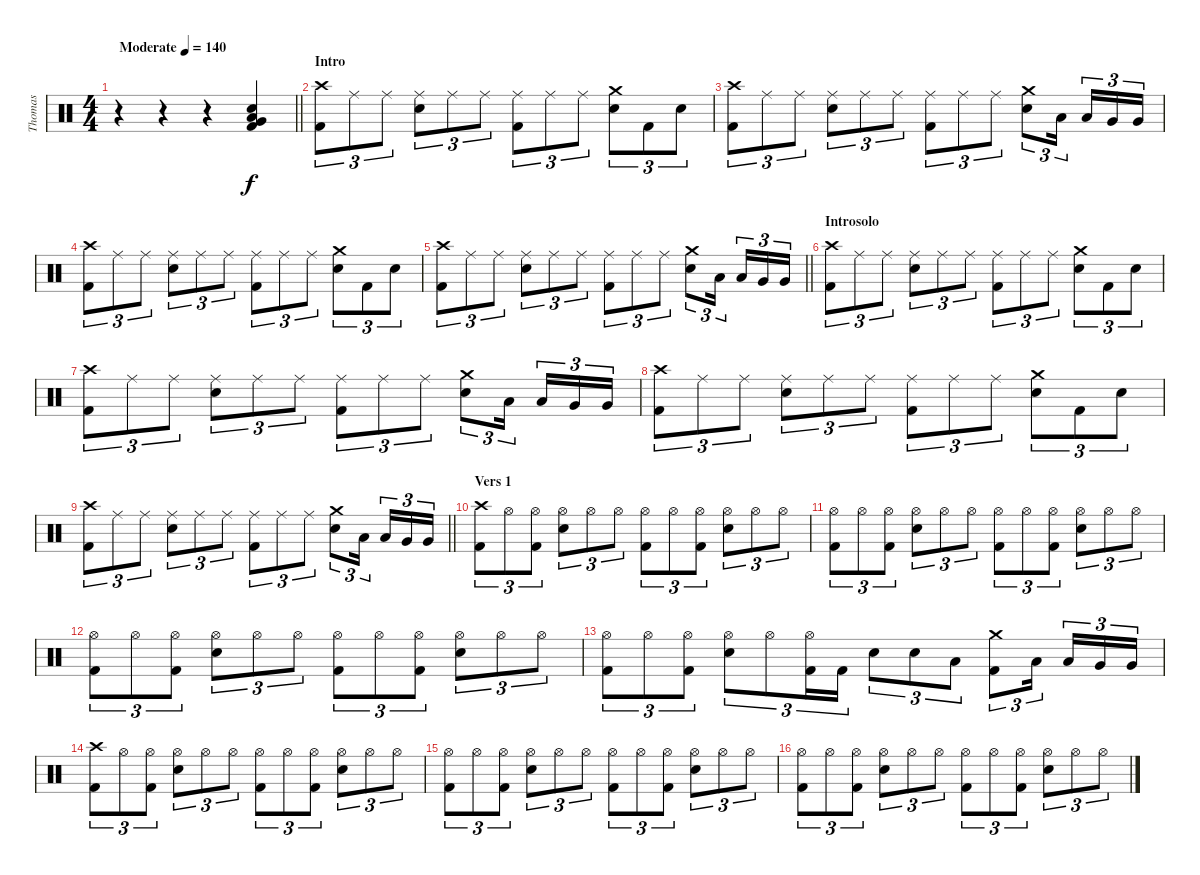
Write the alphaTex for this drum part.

\track ("Thomas" "Thomas") {instrument percussion}
\staff {score}
\articulation defaults
\ts (4 4)
\tempo (140 "Moderate")
\clef neutral
\barLineRight lightlight
\ks c
r.4{dy f} r.4 r.4 ("Very Low Tom (hit)" "Snare (hit) 2" "Low Floor Tom (hit)" "Kick (hit) 2").4 |
\section ("" "Intro")
("Crash high (hit)" "Kick (hit) 2").8{tu (3 2)} "Ride (middle)".8{tu (3 2)} "Ride (middle)".8{tu (3 2)} ("Ride (middle)" "Snare (hit) 2").8{tu (3 2)} "Ride (middle)".8{tu (3 2)} "Ride (middle)".8{tu (3 2)} ("Ride (middle)" "Kick (hit) 2").8{tu (3 2)} "Ride (middle)".8{tu (3 2)} "Ride (middle)".8{tu (3 2)} ("Crash medium (hit)" "Snare (hit) 2").8{tu (3 2)} "Kick (hit) 2".8{tu (3 2)} "Snare (hit) 2".8{tu (3 2)} |
("Crash high (hit)" "Kick (hit) 2").8{tu (3 2)} "Ride (middle)".8{tu (3 2)} "Ride (middle)".8{tu (3 2)} ("Ride (middle)" "Snare (hit) 2").8{tu (3 2)} "Ride (middle)".8{tu (3 2)} "Ride (middle)".8{tu (3 2)} ("Ride (middle)" "Kick (hit) 2").8{tu (3 2)} "Ride (middle)".8{tu (3 2)} "Ride (middle)".8{tu (3 2)} ("Crash medium (hit)" "Snare (hit) 2").8{tu (3 2)} "Low Tom (hit)".16{tu (3 2) beam splitsecondary} "Low Tom (hit)".16{tu (3 2)} "Very Low Tom (hit)".16{tu (3 2)} "Very Low Tom (hit)".16{tu (3 2)} |
("Crash high (hit)" "Kick (hit) 2").8{tu (3 2)} "Ride (middle)".8{tu (3 2)} "Ride (middle)".8{tu (3 2)} ("Ride (middle)" "Snare (hit) 2").8{tu (3 2)} "Ride (middle)".8{tu (3 2)} "Ride (middle)".8{tu (3 2)} ("Ride (middle)" "Kick (hit) 2").8{tu (3 2)} "Ride (middle)".8{tu (3 2)} "Ride (middle)".8{tu (3 2)} ("Crash medium (hit)" "Snare (hit) 2").8{tu (3 2)} "Kick (hit) 2".8{tu (3 2)} "Snare (hit) 2".8{tu (3 2)} |
\barLineRight lightlight
("Crash high (hit)" "Kick (hit) 2").8{tu (3 2)} "Ride (middle)".8{tu (3 2)} "Ride (middle)".8{tu (3 2)} ("Ride (middle)" "Snare (hit) 2").8{tu (3 2)} "Ride (middle)".8{tu (3 2)} "Ride (middle)".8{tu (3 2)} ("Ride (middle)" "Kick (hit) 2").8{tu (3 2)} "Ride (middle)".8{tu (3 2)} "Ride (middle)".8{tu (3 2)} ("Crash medium (hit)" "Snare (hit) 2").8{tu (3 2)} "Low Tom (hit)".16{tu (3 2) beam splitsecondary} "Low Tom (hit)".16{tu (3 2)} "Very Low Tom (hit)".16{tu (3 2)} "Very Low Tom (hit)".16{tu (3 2)} |
\section ("" "Introsolo")
("Crash high (hit)" "Kick (hit) 2").8{tu (3 2)} "Ride (middle)".8{tu (3 2)} "Ride (middle)".8{tu (3 2)} ("Ride (middle)" "Snare (hit) 2").8{tu (3 2)} "Ride (middle)".8{tu (3 2)} "Ride (middle)".8{tu (3 2)} ("Ride (middle)" "Kick (hit) 2").8{tu (3 2)} "Ride (middle)".8{tu (3 2)} "Ride (middle)".8{tu (3 2)} ("Crash medium (hit)" "Snare (hit) 2").8{tu (3 2)} "Kick (hit) 2".8{tu (3 2)} "Snare (hit) 2".8{tu (3 2)} |
("Crash high (hit)" "Kick (hit) 2").8{tu (3 2)} "Ride (middle)".8{tu (3 2)} "Ride (middle)".8{tu (3 2)} ("Ride (middle)" "Snare (hit) 2").8{tu (3 2)} "Ride (middle)".8{tu (3 2)} "Ride (middle)".8{tu (3 2)} ("Ride (middle)" "Kick (hit) 2").8{tu (3 2)} "Ride (middle)".8{tu (3 2)} "Ride (middle)".8{tu (3 2)} ("Crash medium (hit)" "Snare (hit) 2").8{tu (3 2)} "Low Tom (hit)".16{tu (3 2) beam splitsecondary} "Low Tom (hit)".16{tu (3 2)} "Very Low Tom (hit)".16{tu (3 2)} "Very Low Tom (hit)".16{tu (3 2)} |
("Crash high (hit)" "Kick (hit) 2").8{tu (3 2)} "Ride (middle)".8{tu (3 2)} "Ride (middle)".8{tu (3 2)} ("Ride (middle)" "Snare (hit) 2").8{tu (3 2)} "Ride (middle)".8{tu (3 2)} "Ride (middle)".8{tu (3 2)} ("Ride (middle)" "Kick (hit) 2").8{tu (3 2)} "Ride (middle)".8{tu (3 2)} "Ride (middle)".8{tu (3 2)} ("Crash medium (hit)" "Snare (hit) 2").8{tu (3 2)} "Kick (hit) 2".8{tu (3 2)} "Snare (hit) 2".8{tu (3 2)} |
\barLineRight lightlight
("Crash high (hit)" "Kick (hit) 2").8{tu (3 2)} "Ride (middle)".8{tu (3 2)} "Ride (middle)".8{tu (3 2)} ("Ride (middle)" "Snare (hit) 2").8{tu (3 2)} "Ride (middle)".8{tu (3 2)} "Ride (middle)".8{tu (3 2)} ("Ride (middle)" "Kick (hit) 2").8{tu (3 2)} "Ride (middle)".8{tu (3 2)} "Ride (middle)".8{tu (3 2)} ("Crash medium (hit)" "Snare (hit) 2").8{tu (3 2)} "Low Tom (hit)".16{tu (3 2) beam splitsecondary} "Low Tom (hit)".16{tu (3 2)} "Very Low Tom (hit)".16{tu (3 2)} "Very Low Tom (hit)".16{tu (3 2)} |
\section ("" "Vers 1")
("Crash high (hit)" "Kick (hit) 2").8{tu (3 2)} "Hi-Hat (open)".8{tu (3 2)} ("Hi-Hat (open)" "Kick (hit) 2").8{tu (3 2)} ("Hi-Hat (open)" "Snare (hit) 2").8{tu (3 2)} "Hi-Hat (open)".8{tu (3 2)} "Hi-Hat (open)".8{tu (3 2)} ("Hi-Hat (open)" "Kick (hit) 2").8{tu (3 2)} "Hi-Hat (open)".8{tu (3 2)} ("Hi-Hat (open)" "Kick (hit) 2").8{tu (3 2)} ("Hi-Hat (open)" "Snare (hit) 2").8{tu (3 2)} "Hi-Hat (open)".8{tu (3 2)} "Hi-Hat (open)".8{tu (3 2)} |
("Hi-Hat (open)" "Kick (hit) 2").8{tu (3 2)} "Hi-Hat (open)".8{tu (3 2)} ("Hi-Hat (open)" "Kick (hit) 2").8{tu (3 2)} ("Hi-Hat (open)" "Snare (hit) 2").8{tu (3 2)} "Hi-Hat (open)".8{tu (3 2)} "Hi-Hat (open)".8{tu (3 2)} ("Hi-Hat (open)" "Kick (hit) 2").8{tu (3 2)} "Hi-Hat (open)".8{tu (3 2)} ("Hi-Hat (open)" "Kick (hit) 2").8{tu (3 2)} ("Hi-Hat (open)" "Snare (hit) 2").8{tu (3 2)} "Hi-Hat (open)".8{tu (3 2)} "Hi-Hat (open)".8{tu (3 2)} |
("Hi-Hat (open)" "Kick (hit) 2").8{tu (3 2)} "Hi-Hat (open)".8{tu (3 2)} ("Hi-Hat (open)" "Kick (hit) 2").8{tu (3 2)} ("Hi-Hat (open)" "Snare (hit) 2").8{tu (3 2)} "Hi-Hat (open)".8{tu (3 2)} "Hi-Hat (open)".8{tu (3 2)} ("Hi-Hat (open)" "Kick (hit) 2").8{tu (3 2)} "Hi-Hat (open)".8{tu (3 2)} ("Hi-Hat (open)" "Kick (hit) 2").8{tu (3 2)} ("Hi-Hat (open)" "Snare (hit) 2").8{tu (3 2)} "Hi-Hat (open)".8{tu (3 2)} "Hi-Hat (open)".8{tu (3 2)} |
("Hi-Hat (open)" "Kick (hit) 2").8{tu (3 2)} "Hi-Hat (open)".8{tu (3 2)} ("Hi-Hat (open)" "Kick (hit) 2").8{tu (3 2)} ("Hi-Hat (open)" "Snare (hit) 2").8{tu (3 2)} "Hi-Hat (open)".8{tu (3 2)} ("Hi-Hat (open)" "Kick (hit) 2").16{tu (3 2)} "Kick (hit) 2".16{tu (3 2)} "Snare (hit) 2".8{tu (3 2)} "Snare (hit) 2".8{tu (3 2)} "Low Tom (hit)".8{tu (3 2)} ("Crash medium (hit)" "Kick (hit) 2").8{tu (3 2)} "Low Tom (hit)".16{tu (3 2) beam splitsecondary} "Low Tom (hit)".16{tu (3 2)} "Very Low Tom (hit)".16{tu (3 2)} "Very Low Tom (hit)".16{tu (3 2)} |
("Crash high (hit)" "Kick (hit) 2").8{tu (3 2)} "Hi-Hat (open)".8{tu (3 2)} ("Hi-Hat (open)" "Kick (hit) 2").8{tu (3 2)} ("Hi-Hat (open)" "Snare (hit) 2").8{tu (3 2)} "Hi-Hat (open)".8{tu (3 2)} "Hi-Hat (open)".8{tu (3 2)} ("Hi-Hat (open)" "Kick (hit) 2").8{tu (3 2)} "Hi-Hat (open)".8{tu (3 2)} ("Hi-Hat (open)" "Kick (hit) 2").8{tu (3 2)} ("Hi-Hat (open)" "Snare (hit) 2").8{tu (3 2)} "Hi-Hat (open)".8{tu (3 2)} "Hi-Hat (open)".8{tu (3 2)} |
("Hi-Hat (open)" "Kick (hit) 2").8{tu (3 2)} "Hi-Hat (open)".8{tu (3 2)} ("Hi-Hat (open)" "Kick (hit) 2").8{tu (3 2)} ("Hi-Hat (open)" "Snare (hit) 2").8{tu (3 2)} "Hi-Hat (open)".8{tu (3 2)} "Hi-Hat (open)".8{tu (3 2)} ("Hi-Hat (open)" "Kick (hit) 2").8{tu (3 2)} "Hi-Hat (open)".8{tu (3 2)} ("Hi-Hat (open)" "Kick (hit) 2").8{tu (3 2)} ("Hi-Hat (open)" "Snare (hit) 2").8{tu (3 2)} "Hi-Hat (open)".8{tu (3 2)} "Hi-Hat (open)".8{tu (3 2)} |
("Hi-Hat (open)" "Kick (hit) 2").8{tu (3 2)} "Hi-Hat (open)".8{tu (3 2)} ("Hi-Hat (open)" "Kick (hit) 2").8{tu (3 2)} ("Hi-Hat (open)" "Snare (hit) 2").8{tu (3 2)} "Hi-Hat (open)".8{tu (3 2)} "Hi-Hat (open)".8{tu (3 2)} ("Hi-Hat (open)" "Kick (hit) 2").8{tu (3 2)} "Hi-Hat (open)".8{tu (3 2)} ("Hi-Hat (open)" "Kick (hit) 2").8{tu (3 2)} ("Hi-Hat (open)" "Snare (hit) 2").8{tu (3 2)} "Hi-Hat (open)".8{tu (3 2)} "Hi-Hat (open)".8{tu (3 2)}
